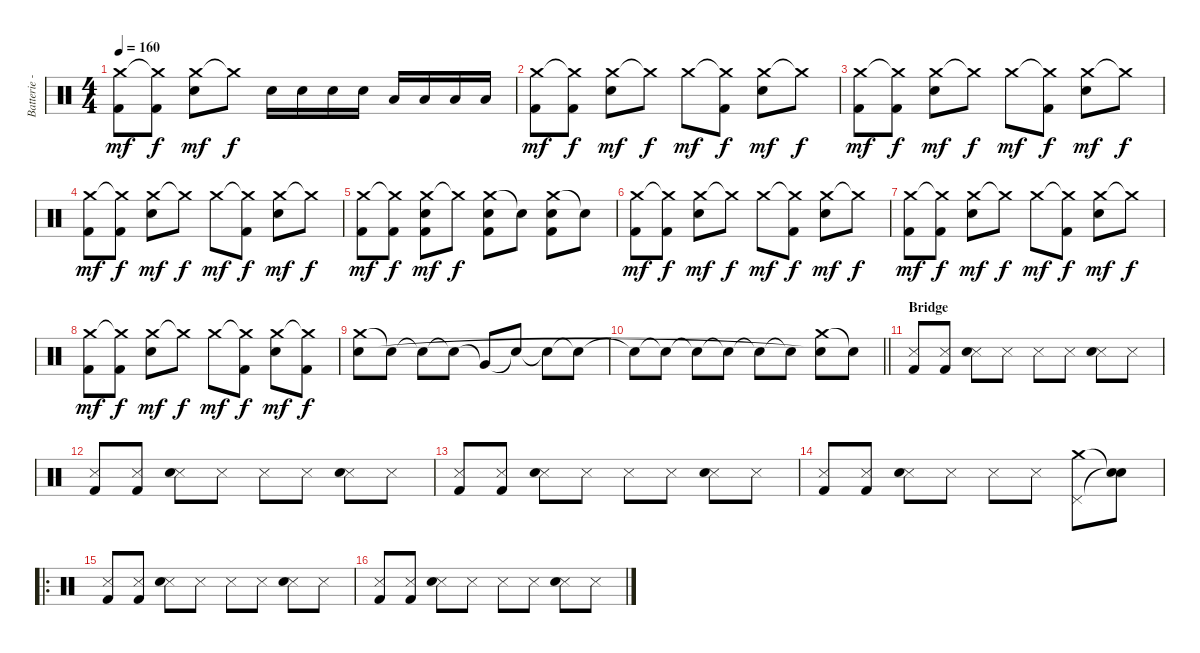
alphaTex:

\track ("Batterie - Mikko" "Batterie -") {instrument percussion}
\staff {score}
\articulation defaults
\ts (4 4)
\tempo 160
\clef neutral
\ks c
("Crash medium (hit)" "Kick (hit) 2").8{dy mf} ("Crash medium (hit)"{t} "Kick (hit) 2").8{dy f} ("Crash medium (hit)" "Snare (hit) 2").8{dy mf} "Crash medium (hit)"{t}.8{dy f} "Snare (hit) 2".16 "Snare (hit) 2".16 "Snare (hit) 2".16 "Snare (hit) 2".16 "Low Tom (hit)".16 "Low Tom (hit)".16 "Low Tom (hit)".16 "Low Tom (hit)".16 |
("Crash medium (hit)" "Kick (hit) 2").8{dy mf} ("Crash medium (hit)"{t} "Kick (hit) 2").8{dy f} ("Crash medium (hit)" "Snare (hit) 2").8{dy mf} "Crash medium (hit)"{t}.8{dy f} "Crash medium (hit)".8{dy mf} ("Crash medium (hit)"{t} "Kick (hit) 2").8{dy f} ("Crash medium (hit)" "Snare (hit) 2").8{dy mf} "Crash medium (hit)"{t}.8{dy f} |
("Crash medium (hit)" "Kick (hit) 2").8{dy mf} ("Crash medium (hit)"{t} "Kick (hit) 2").8{dy f} ("Crash medium (hit)" "Snare (hit) 2").8{dy mf} "Crash medium (hit)"{t}.8{dy f} "Crash medium (hit)".8{dy mf} ("Crash medium (hit)"{t} "Kick (hit) 2").8{dy f} ("Crash medium (hit)" "Snare (hit) 2").8{dy mf} "Crash medium (hit)"{t}.8{dy f} |
("Crash medium (hit)" "Kick (hit) 2").8{dy mf} ("Crash medium (hit)"{t} "Kick (hit) 2").8{dy f} ("Crash medium (hit)" "Snare (hit) 2").8{dy mf} "Crash medium (hit)"{t}.8{dy f} "Crash medium (hit)".8{dy mf} ("Crash medium (hit)"{t} "Kick (hit) 2").8{dy f} ("Crash medium (hit)" "Snare (hit) 2").8{dy mf} "Crash medium (hit)"{t}.8{dy f} |
("Crash medium (hit)" "Kick (hit) 2").8{dy mf} ("Crash medium (hit)"{t} "Kick (hit) 2").8{dy f} ("Crash medium (hit)" "Snare (hit) 2" "Kick (hit) 2").8{dy mf} "Crash medium (hit)"{t}.8{dy f} ("Crash medium (hit)" "Snare (hit) 2" "Kick (hit) 2").8 "Snare (hit)"{t}.8 ("Crash medium (hit)" "Snare (hit) 2" "Kick (hit) 2").8 "Snare (hit)"{t}.8 |
("Crash medium (hit)" "Kick (hit) 2").8{dy mf} ("Crash medium (hit)"{t} "Kick (hit) 2").8{dy f} ("Crash medium (hit)" "Snare (hit) 2").8{dy mf} "Crash medium (hit)"{t}.8{dy f} "Crash medium (hit)".8{dy mf} ("Crash medium (hit)"{t} "Kick (hit) 2").8{dy f} ("Crash medium (hit)" "Snare (hit) 2").8{dy mf} "Crash medium (hit)"{t}.8{dy f} |
("Crash medium (hit)" "Kick (hit) 2").8{dy mf} ("Crash medium (hit)"{t} "Kick (hit) 2").8{dy f} ("Crash medium (hit)" "Snare (hit) 2").8{dy mf} "Crash medium (hit)"{t}.8{dy f} "Crash medium (hit)".8{dy mf} ("Crash medium (hit)"{t} "Kick (hit) 2").8{dy f} ("Crash medium (hit)" "Snare (hit) 2").8{dy mf} "Crash medium (hit)"{t}.8{dy f} |
("Crash medium (hit)" "Kick (hit) 2").8{dy mf} ("Crash medium (hit)"{t} "Kick (hit) 2").8{dy f} ("Crash medium (hit)" "Snare (hit) 2").8{dy mf} "Crash medium (hit)"{t}.8{dy f} "Crash medium (hit)".8{dy mf} ("Crash medium (hit)"{t} "Kick (hit) 2").8{dy f} ("Crash medium (hit)" "Snare (hit) 2").8{dy mf} ("Crash medium (hit)"{t} "Kick (hit) 2").8{dy f} |
("Crash medium (hit)" "Snare (hit) 2").8 "Snare (hit)"{t}.8 "Snare (hit)"{t}.8 "Snare (hit)"{t}.8 "Very Low Tom (hit)"{t}.8 "Snare (hit)"{t}.8 "Snare (hit)"{t}.8 "Snare (hit)"{t}.8 |
\barLineRight lightlight "Snare (hit)"{t}.8 "Snare (hit)"{t}.8 "Snare (hit)"{t}.8 "Snare (hit)"{t}.8 "Snare (hit)"{t}.8 "Snare (hit)"{t}.8
("Crash medium (hit)" "Snare (hit)"{t}).8 "Snare (hit)"{t}.8 |
\section ("" "Bridge")
("Snare (side stick) 3" "Kick (hit) 2").8 ("Snare (side stick) 3" "Kick (hit) 2").8 ("Snare (side stick) 3" "Snare (hit) 2").8 "Snare (side stick) 3".8 "Snare (side stick) 3".8 "Snare (side stick) 3".8 ("Snare (side stick) 3" "Snare (hit) 2").8 "Snare (side stick) 3".8 |
("Snare (side stick) 3" "Kick (hit) 2").8 ("Snare (side stick) 3" "Kick (hit) 2").8 ("Snare (side stick) 3" "Snare (hit) 2").8 "Snare (side stick) 3".8 "Snare (side stick) 3".8 "Snare (side stick) 3".8 ("Snare (side stick) 3" "Snare (hit) 2").8 "Snare (side stick) 3".8 |
("Snare (side stick) 3" "Kick (hit) 2").8 ("Snare (side stick) 3" "Kick (hit) 2").8 ("Snare (side stick) 3" "Snare (hit) 2").8 "Snare (side stick) 3".8 "Snare (side stick) 3".8 "Snare (side stick) 3".8 ("Snare (side stick) 3" "Snare (hit) 2").8 "Snare (side stick) 3".8 |
("Snare (side stick) 3" "Kick (hit) 2").8 ("Snare (side stick) 3" "Kick (hit) 2").8 ("Snare (side stick) 3" "Snare (hit) 2").8 "Snare (side stick) 3".8 "Snare (side stick) 3".8 "Snare (side stick) 3".8 ("Crash medium (hit)" "Pedal Hi-Hat (hit)").8 ("Snare (hit)"{t} "Snare (hit)"{t}).8 |
\ro
("Snare (side stick) 3" "Kick (hit) 2").8 ("Snare (side stick) 3" "Kick (hit) 2").8 ("Snare (side stick) 3" "Snare (hit) 2").8 "Snare (side stick) 3".8 "Snare (side stick) 3".8 "Snare (side stick) 3".8 ("Snare (side stick) 3" "Snare (hit) 2").8 "Snare (side stick) 3".8 |
("Snare (side stick) 3" "Kick (hit) 2").8 ("Snare (side stick) 3" "Kick (hit) 2").8 ("Snare (side stick) 3" "Snare (hit) 2").8 "Snare (side stick) 3".8 "Snare (side stick) 3".8 "Snare (side stick) 3".8 ("Snare (side stick) 3" "Snare (hit) 2").8 "Snare (side stick) 3".8
